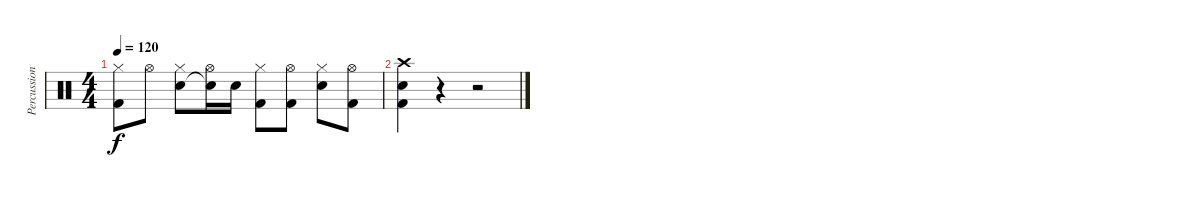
\track ("Percussions" "Percussion") {instrument percussion}
\staff {score}
\articulation defaults
\ts (4 4)
\tempo 120
\clef neutral
\ks c
("Hi-Hat (closed)" "Kick (hit) 2").8{dy f} "Hi-Hat (open)".8 ("Hi-Hat (closed)" "Snare (hit) 2").8 ("Hi-Hat (open)" "Snare (hit)"{t}).16 "Snare (hit) 2".16 ("Hi-Hat (closed)" "Kick (hit) 2").8 ("Hi-Hat (open)" "Kick (hit) 2").8 ("Hi-Hat (closed)" "Snare (hit) 2").8 ("Hi-Hat (open)" "Kick (hit) 2").8 |
("Crash high (hit)" "Snare (hit) 2" "Kick (hit) 2").4 r.4 r.2
